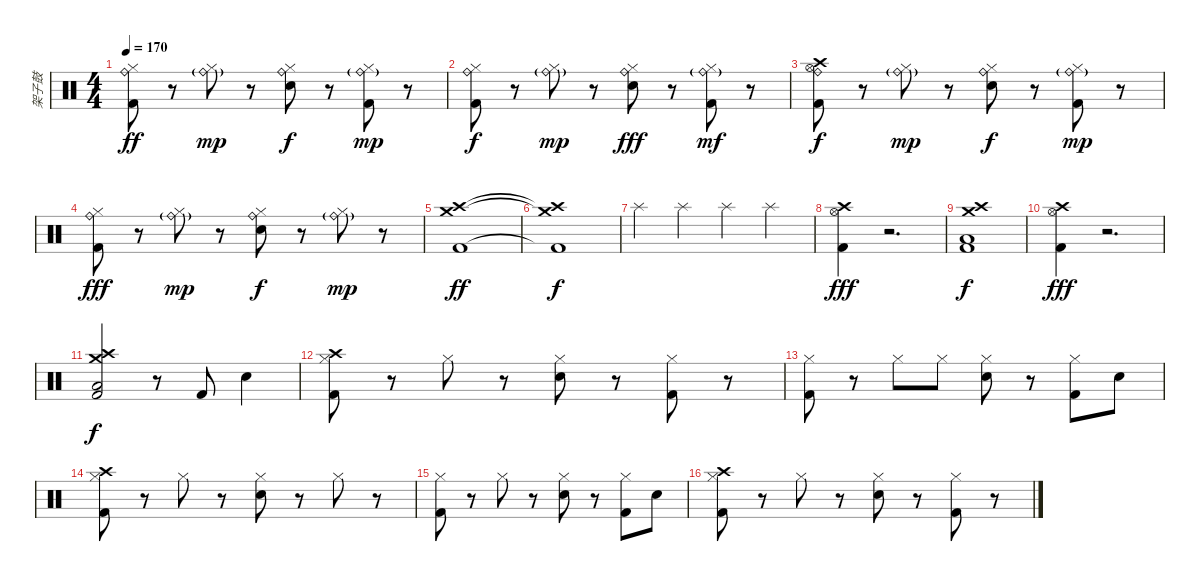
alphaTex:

\track ("架子鼓" "架子鼓") {instrument percussion}
\staff {score}
\articulation defaults
\ts (4 4)
\tempo 170
\clef neutral
\ks c
("Hi-Hat (closed)" "Ride (bell)" "Kick (hit) 2").8{dy ff} r.8 ("Hi-Hat (closed)" "Ride (bell)"{g}).8{dy mp} r.8 ("Hi-Hat (closed)" "Ride (bell)" "Snare (hit) 2").8{dy f} r.8 ("Hi-Hat (closed)" "Ride (bell)"{g} "Kick (hit) 2").8{dy mp} r.8 |
("Hi-Hat (closed)" "Ride (bell)" "Kick (hit) 2").8{dy f} r.8 ("Hi-Hat (closed)" "Ride (bell)"{g}).8{dy mp} r.8 ("Hi-Hat (closed)" "Ride (bell)" "Snare (hit) 2").8{dy fff} r.8 ("Hi-Hat (closed)" "Ride (bell)"{g} "Kick (hit) 2").8{dy mf} r.8 |
("Crash high (hit)" "Ride (bell)" "Kick (hit) 2" "Hi-Hat (open)").8{dy f} r.8 ("Hi-Hat (closed)" "Ride (bell)"{g}).8{dy mp} r.8 ("Hi-Hat (closed)" "Ride (bell)" "Snare (hit) 2").8{dy f} r.8 ("Hi-Hat (closed)" "Ride (bell)"{g} "Kick (hit) 2").8{dy mp} r.8 |
("Hi-Hat (closed)" "Ride (bell)" "Kick (hit) 2").8{dy fff} r.8 ("Hi-Hat (closed)" "Ride (bell)"{g}).8{dy mp} r.8 ("Hi-Hat (closed)" "Ride (bell)" "Snare (hit) 2").8{dy f} r.8 ("Hi-Hat (closed)" "Ride (bell)"{g}).8{dy mp} r.8 |
("Kick (hit) 2" "Crash medium (hit)" "Crash high (hit)").1{dy ff} |
("Kick (hit) 2"{t} "Crash medium (hit)"{t} "Crash high (hit)"{t}).1{dy f} |
"Splash (hit)".4{volume 14} "Splash (hit)".4 "Splash (hit)".4 "Splash (hit)".4 |
("Hi-Hat (open)" "Crash high (hit)" "Kick (hit) 2").4{dy fff} r.2{d} |
("Low Floor Tom (hit)" "Kick (hit) 2" "Crash medium (hit)" "Crash high (hit)").1{dy f} |
("Hi-Hat (open)" "Crash high (hit)" "Kick (hit) 2").4{dy fff} r.2{d} |
("Low Floor Tom (hit)" "Kick (hit) 2" "Crash medium (hit)" "Crash high (hit)").2{dy f} r.8 "Kick (hit) 2".8 "Snare (hit) 2".4 |
("Hi-Hat (closed)" "Kick (hit) 2" "Crash high (hit)").8 r.8 "Hi-Hat (closed)".8 r.8 ("Hi-Hat (closed)" "Snare (hit) 2").8 r.8 ("Hi-Hat (closed)" "Kick (hit) 2").8 r.8 |
("Hi-Hat (closed)" "Kick (hit) 2").8 r.8 "Hi-Hat (closed)".8 "Hi-Hat (closed)".8 ("Hi-Hat (closed)" "Snare (hit) 2").8 r.8 ("Hi-Hat (closed)" "Kick (hit) 2").8 "Snare (hit) 2".8 |
("Hi-Hat (closed)" "Kick (hit) 2" "Crash high (hit)").8 r.8 "Hi-Hat (closed)".8 r.8 ("Hi-Hat (closed)" "Snare (hit) 2").8 r.8 "Hi-Hat (closed)".8 r.8 |
("Hi-Hat (closed)" "Kick (hit) 2").8 r.8 "Hi-Hat (closed)".8 r.8 ("Hi-Hat (closed)" "Snare (hit) 2").8 r.8 ("Hi-Hat (closed)" "Kick (hit) 2").8 "Snare (hit) 2".8 |
("Hi-Hat (closed)" "Kick (hit) 2" "Crash high (hit)").8 r.8 "Hi-Hat (closed)".8 r.8 ("Hi-Hat (closed)" "Snare (hit) 2").8 r.8 ("Hi-Hat (closed)" "Kick (hit) 2").8 r.8
